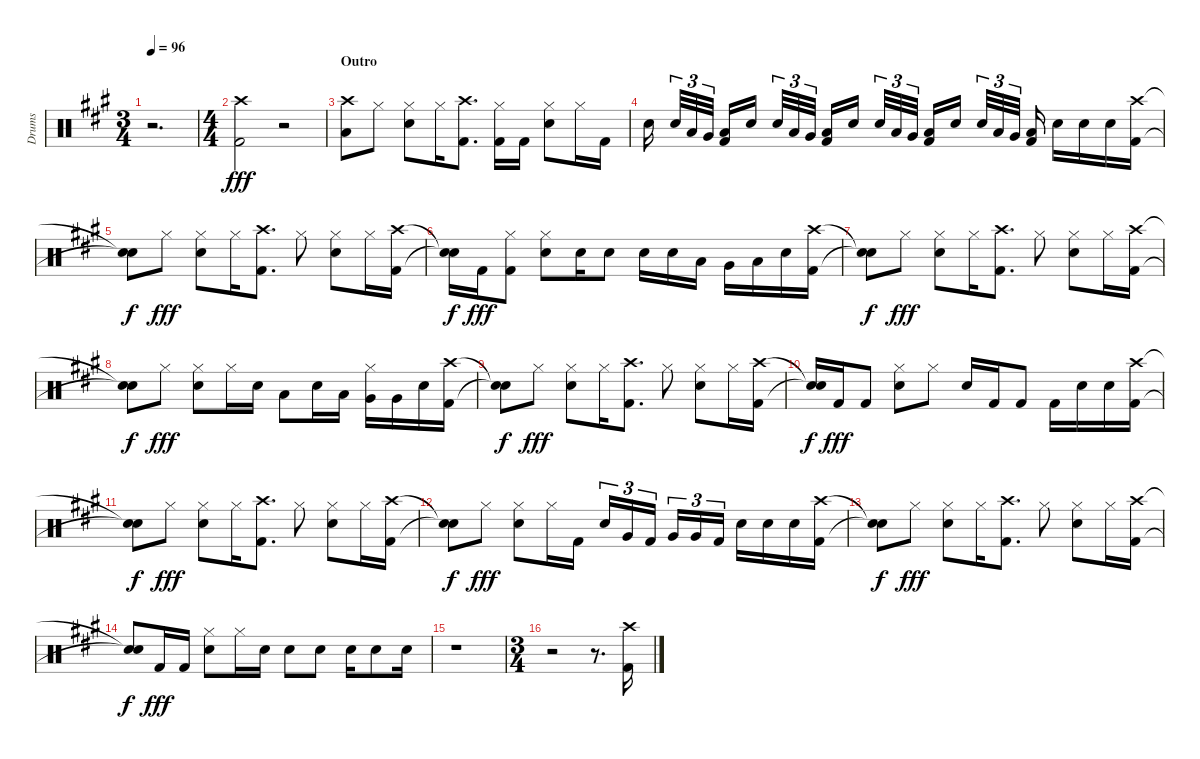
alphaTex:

\track ("Drums" "Drums") {instrument percussion}
\staff {score}
\articulation defaults
\ts (3 4)
\tempo 96
\clef neutral
\ks a
r.2{d dy f} |
\ts (4 4)
("Kick (hit) 2" "Crash high (hit)").2{dy fff} r.2 |
\section ("" "Outro")
("Low Floor Tom (hit)" "Crash high (hit)").8 "Hi-Hat (closed)".8 ("Electric Snare (hit)" "Hi-Hat (closed)").8 "Hi-Hat (closed)".16 ("Crash high (hit)" "Kick (hit) 2").8{d} ("Kick (hit) 2" "Hi-Hat (closed)").16 "Kick (hit) 2".16 ("Electric Snare (hit)" "Hi-Hat (closed)").8 "Hi-Hat (closed)".16 "Kick (hit) 2".16 |
"Electric Snare (hit)".16 "Electric Snare (hit)".32{tu (3 2)} "Low Tom (hit)".32{tu (3 2)} "Very Low Tom (hit)".32{tu (3 2)} ("Kick (hit) 2" "Low Tom (hit)").16 "Electric Snare (hit)".16 "Electric Snare (hit)".32{tu (3 2)} "Low Tom (hit)".32{tu (3 2)} "Very Low Tom (hit)".32{tu (3 2)} ("Low Tom (hit)" "Kick (hit) 2").16 "Electric Snare (hit)".16 "Electric Snare (hit)".32{tu (3 2)} "Low Tom (hit)".32{tu (3 2)} "Very Low Tom (hit)".32{tu (3 2)} ("Kick (hit) 2" "Low Tom (hit)").16 "Electric Snare (hit)".16 "Electric Snare (hit)".32{tu (3 2)} "Low Tom (hit)".32{tu (3 2)} "Very Low Tom (hit)".32{tu (3 2)} ("Low Tom (hit)" "Kick (hit) 2").16 "Electric Snare (hit)".16 "Electric Snare (hit)".16 "Electric Snare (hit)".16 ("Crash high (hit)" "Kick (hit) 2").16 |
("Snare (hit)"{t} "Snare (hit)"{t}).8{dy f} "Hi-Hat (closed)".8{dy fff} ("Electric Snare (hit)" "Hi-Hat (closed)").8 "Hi-Hat (closed)".16 ("Kick (hit) 2" "Crash high (hit)").8{d} "Hi-Hat (closed)".8 ("Electric Snare (hit)" "Hi-Hat (closed)").8 "Hi-Hat (closed)".16 ("Kick (hit) 2" "Crash high (hit)").16 |
("Snare (hit)"{t} "Snare (hit)"{t}).16{dy f} "Kick (hit) 2".16{dy fff} ("Hi-Hat (closed)" "Kick (hit) 2").8 ("Hi-Hat (closed)" "Electric Snare (hit)").8 "Electric Snare (hit)".16 "Electric Snare (hit)".8 "Electric Snare (hit)".16 "Electric Snare (hit)".16 "Low Tom (hit)".16 "Very Low Tom (hit)".16 "Low Floor Tom (hit)".16 "Electric Snare (hit)".16 ("Crash high (hit)" "Kick (hit) 2").16 |
("Snare (hit)"{t} "Snare (hit)"{t}).8{dy f} "Hi-Hat (closed)".8{dy fff} ("Electric Snare (hit)" "Hi-Hat (closed)").8 "Hi-Hat (closed)".16 ("Kick (hit) 2" "Crash high (hit)").8{d} "Hi-Hat (closed)".8 ("Electric Snare (hit)" "Hi-Hat (closed)").8 "Hi-Hat (closed)".16 ("Kick (hit) 2" "Crash high (hit)").16 |
("Snare (hit)"{t} "Snare (hit)"{t}).8{dy f} "Hi-Hat (closed)".8{dy fff} ("Electric Snare (hit)" "Hi-Hat (closed)").8 "Hi-Hat (closed)".16 "Electric Snare (hit)".16 "Low Tom (hit)".8 "Electric Snare (hit)".16 "Low Tom (hit)".16 ("Hi-Hat (closed)" "Very Low Tom (hit)").16 "Very Low Tom (hit)".16 "Electric Snare (hit)".16 ("Crash high (hit)" "Kick (hit) 2").16 |
("Snare (hit)"{t} "Snare (hit)"{t}).8{dy f} "Hi-Hat (closed)".8{dy fff} ("Electric Snare (hit)" "Hi-Hat (closed)").8 "Hi-Hat (closed)".16 ("Crash high (hit)" "Kick (hit) 2").8{d} "Hi-Hat (closed)".8 ("Electric Snare (hit)" "Hi-Hat (closed)").8 "Hi-Hat (closed)".16 ("Kick (hit) 2" "Crash high (hit)").16 |
("Snare (hit)"{t} "Snare (hit)"{t}).16{dy f} "Kick (hit) 2".16{dy fff} "Kick (hit) 2".8 ("Electric Snare (hit)" "Hi-Hat (closed)").8 "Hi-Hat (closed)".8 "Electric Snare (hit)".16 "Kick (hit) 2".16 "Kick (hit) 2".8 "Kick (hit) 2".16 "Electric Snare (hit)".16 "Electric Snare (hit)".16 ("Crash high (hit)" "Kick (hit) 2").16 |
("Snare (hit)"{t} "Snare (hit)"{t}).8{dy f} "Hi-Hat (closed)".8{dy fff} ("Electric Snare (hit)" "Hi-Hat (closed)").8 "Hi-Hat (closed)".16 ("Kick (hit) 2" "Crash high (hit)").8{d} "Hi-Hat (closed)".8 ("Electric Snare (hit)" "Hi-Hat (closed)").8 "Hi-Hat (closed)".16 ("Kick (hit) 2" "Crash high (hit)").16 |
("Snare (hit)"{t} "Snare (hit)"{t}).8{dy f} "Hi-Hat (closed)".8{dy fff} ("Electric Snare (hit)" "Hi-Hat (closed)").8 "Hi-Hat (closed)".16 "Kick (hit) 2".16 "Electric Snare (hit)".16{tu (3 2)} "Very Low Tom (hit)".16{tu (3 2)} "Kick (hit) 2".16{tu (3 2)} "Very Low Tom (hit)".16{tu (3 2)} "Very Low Tom (hit)".16{tu (3 2)} "Kick (hit) 2".16{tu (3 2)} "Electric Snare (hit)".16 "Electric Snare (hit)".16 "Electric Snare (hit)".16 ("Crash high (hit)" "Kick (hit) 2").16 |
("Snare (hit)"{t} "Snare (hit)"{t}).8{dy f} "Hi-Hat (closed)".8{dy fff} ("Electric Snare (hit)" "Hi-Hat (closed)").8 "Hi-Hat (closed)".16 ("Kick (hit) 2" "Crash high (hit)").8{d} "Hi-Hat (closed)".8 ("Electric Snare (hit)" "Hi-Hat (closed)").8 "Hi-Hat (closed)".16 ("Kick (hit) 2" "Crash high (hit)").16 |
("Snare (hit)"{t} "Snare (hit)"{t}).8{dy f} "Kick (hit) 2".16{dy fff} "Kick (hit) 2".16 ("Electric Snare (hit)" "Hi-Hat (closed)").8 "Hi-Hat (closed)".16 "Electric Snare (hit)".16 "Electric Snare (hit)".8 "Electric Snare (hit)".8 "Electric Snare (hit)".16 "Electric Snare (hit)".8 "Electric Snare (hit)".16 |
r.1 |
\ts (3 4)
r.2 r.8{d} ("Kick (hit) 2" "Crash high (hit)").16
